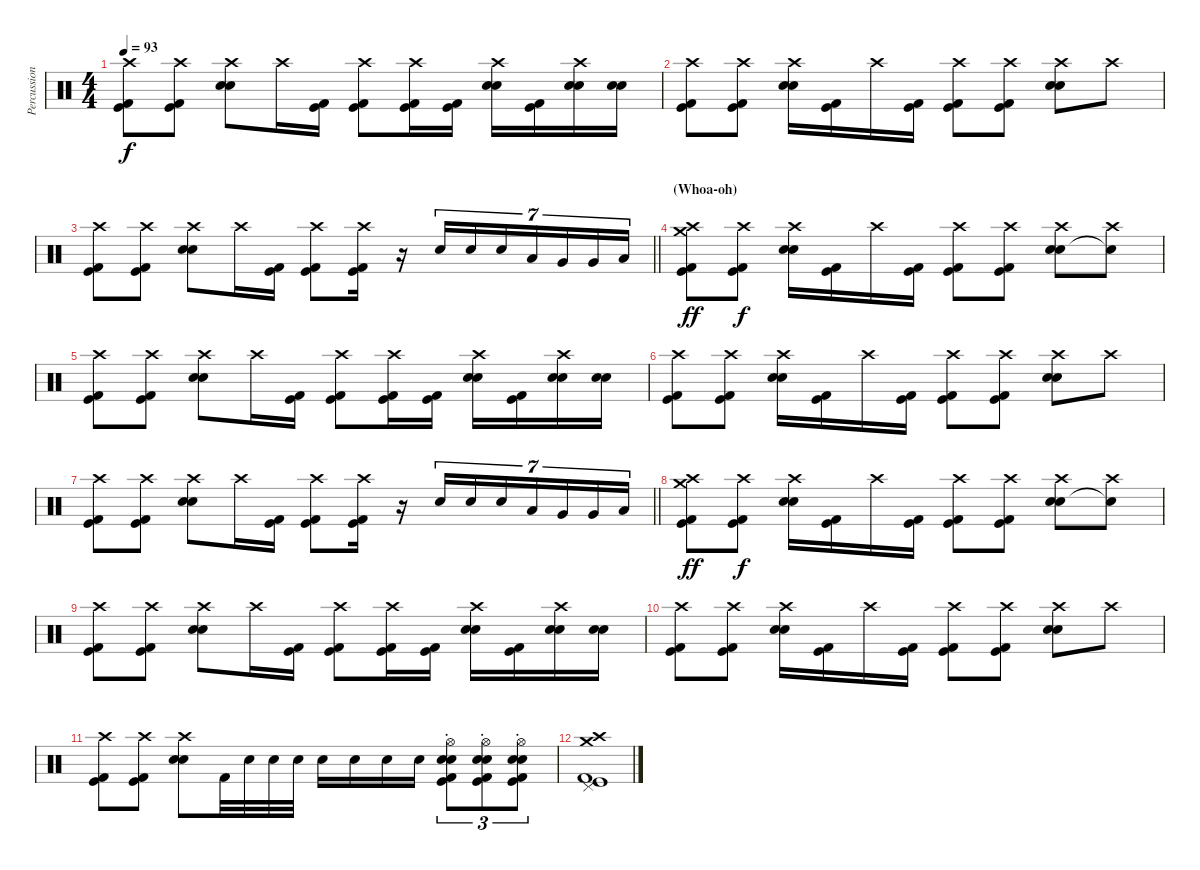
\track ("Percussion" "Percussion") {instrument percussion}
\staff {score}
\articulation defaults
\ts (4 4)
\tempo 93
\clef neutral
\ks c
("Kick (hit) 2" "Kick (hit)" "Crash high (hit)").8{dy f} ("Kick (hit) 2" "Kick (hit)" "Crash high (hit)").8 ("Electric Snare (hit)" "Snare (hit) 2" "Crash high (hit)").8 "Crash high (hit)".16 ("Kick (hit) 2" "Kick (hit)").16 ("Kick (hit) 2" "Kick (hit)" "Crash high (hit)").8 ("Kick (hit) 2" "Kick (hit)" "Crash high (hit)").16 ("Kick (hit) 2" "Kick (hit)").16 ("Electric Snare (hit)" "Snare (hit) 2" "Crash high (hit)").16 ("Kick (hit) 2" "Kick (hit)").16 ("Electric Snare (hit)" "Snare (hit) 2" "Crash high (hit)").16 ("Electric Snare (hit)" "Snare (hit) 2").16 |
("Kick (hit) 2" "Kick (hit)" "Crash high (hit)").8 ("Kick (hit) 2" "Kick (hit)" "Crash high (hit)").8 ("Electric Snare (hit)" "Snare (hit) 2" "Crash high (hit)").16 ("Kick (hit) 2" "Kick (hit)").16 "Crash high (hit)".16 ("Kick (hit) 2" "Kick (hit)").16 ("Kick (hit) 2" "Kick (hit)" "Crash high (hit)").8 ("Kick (hit) 2" "Kick (hit)" "Crash high (hit)").8 ("Electric Snare (hit)" "Snare (hit) 2" "Crash high (hit)").8 "Crash high (hit)".8 |
\barLineRight lightlight
("Kick (hit) 2" "Kick (hit)" "Crash high (hit)").8 ("Kick (hit) 2" "Kick (hit)" "Crash high (hit)").8 ("Electric Snare (hit)" "Snare (hit) 2" "Crash high (hit)").8 "Crash high (hit)".16 ("Kick (hit) 2" "Kick (hit)").16 ("Kick (hit) 2" "Kick (hit)" "Crash high (hit)").8 ("Kick (hit) 2" "Kick (hit)" "Crash high (hit)").16 r.16 "Snare (hit) 2".16{tu (7 4)} "Snare (hit) 2".16{tu (7 4)} "Snare (hit) 2".16{tu (7 4)} "Low Tom (hit)".16{tu (7 4)} "Very Low Tom (hit)".16{tu (7 4)} "Very Low Tom (hit)".16{tu (7 4)} "Low Floor Tom (hit)".16{tu (7 4)} |
\section ("" "(Whoa-oh)")
("Kick (hit) 2" "Kick (hit)" "Crash high (hit)" "Crash medium (hit)").8{dy ff} ("Kick (hit) 2" "Kick (hit)" "Crash high (hit)").8{dy f} ("Electric Snare (hit)" "Snare (hit) 2" "Crash high (hit)").16 ("Kick (hit) 2" "Kick (hit)").16 "Crash high (hit)".16 ("Kick (hit) 2" "Kick (hit)").16 ("Kick (hit) 2" "Kick (hit)" "Crash high (hit)").8 ("Kick (hit) 2" "Kick (hit)" "Crash high (hit)").8 ("Electric Snare (hit)" "Snare (hit) 2" "Crash high (hit)").8 ("Crash high (hit)" "Snare (hit)"{t}).8 |
("Kick (hit) 2" "Kick (hit)" "Crash high (hit)").8 ("Kick (hit) 2" "Kick (hit)" "Crash high (hit)").8 ("Electric Snare (hit)" "Snare (hit) 2" "Crash high (hit)").8 "Crash high (hit)".16 ("Kick (hit) 2" "Kick (hit)").16 ("Kick (hit) 2" "Kick (hit)" "Crash high (hit)").8 ("Kick (hit) 2" "Kick (hit)" "Crash high (hit)").16 ("Kick (hit) 2" "Kick (hit)").16 ("Electric Snare (hit)" "Snare (hit) 2" "Crash high (hit)").16 ("Kick (hit) 2" "Kick (hit)").16 ("Electric Snare (hit)" "Snare (hit) 2" "Crash high (hit)").16 ("Electric Snare (hit)" "Snare (hit) 2").16 |
("Kick (hit) 2" "Kick (hit)" "Crash high (hit)").8 ("Kick (hit) 2" "Kick (hit)" "Crash high (hit)").8 ("Electric Snare (hit)" "Snare (hit) 2" "Crash high (hit)").16 ("Kick (hit) 2" "Kick (hit)").16 "Crash high (hit)".16 ("Kick (hit) 2" "Kick (hit)").16 ("Kick (hit) 2" "Kick (hit)" "Crash high (hit)").8 ("Kick (hit) 2" "Kick (hit)" "Crash high (hit)").8 ("Electric Snare (hit)" "Snare (hit) 2" "Crash high (hit)").8 "Crash high (hit)".8 |
\barLineRight lightlight
("Kick (hit) 2" "Kick (hit)" "Crash high (hit)").8 ("Kick (hit) 2" "Kick (hit)" "Crash high (hit)").8 ("Electric Snare (hit)" "Snare (hit) 2" "Crash high (hit)").8 "Crash high (hit)".16 ("Kick (hit) 2" "Kick (hit)").16 ("Kick (hit) 2" "Kick (hit)" "Crash high (hit)").8 ("Kick (hit) 2" "Kick (hit)" "Crash high (hit)").16 r.16 "Snare (hit) 2".16{tu (7 4)} "Snare (hit) 2".16{tu (7 4)} "Snare (hit) 2".16{tu (7 4)} "Low Tom (hit)".16{tu (7 4)} "Very Low Tom (hit)".16{tu (7 4)} "Very Low Tom (hit)".16{tu (7 4)} "Low Floor Tom (hit)".16{tu (7 4)} |
("Kick (hit) 2" "Kick (hit)" "Crash high (hit)" "Crash medium (hit)").8{dy ff} ("Kick (hit) 2" "Kick (hit)" "Crash high (hit)").8{dy f} ("Electric Snare (hit)" "Snare (hit) 2" "Crash high (hit)").16 ("Kick (hit) 2" "Kick (hit)").16 "Crash high (hit)".16 ("Kick (hit) 2" "Kick (hit)").16 ("Kick (hit) 2" "Kick (hit)" "Crash high (hit)").8 ("Kick (hit) 2" "Kick (hit)" "Crash high (hit)").8 ("Electric Snare (hit)" "Snare (hit) 2" "Crash high (hit)").8 ("Crash high (hit)" "Snare (hit)"{t}).8 |
("Kick (hit) 2" "Kick (hit)" "Crash high (hit)").8 ("Kick (hit) 2" "Kick (hit)" "Crash high (hit)").8 ("Electric Snare (hit)" "Snare (hit) 2" "Crash high (hit)").8 "Crash high (hit)".16 ("Kick (hit) 2" "Kick (hit)").16 ("Kick (hit) 2" "Kick (hit)" "Crash high (hit)").8 ("Kick (hit) 2" "Kick (hit)" "Crash high (hit)").16 ("Kick (hit) 2" "Kick (hit)").16 ("Electric Snare (hit)" "Snare (hit) 2" "Crash high (hit)").16 ("Kick (hit) 2" "Kick (hit)").16 ("Electric Snare (hit)" "Snare (hit) 2" "Crash high (hit)").16 ("Electric Snare (hit)" "Snare (hit) 2").16 |
("Kick (hit) 2" "Kick (hit)" "Crash high (hit)").8 ("Kick (hit) 2" "Kick (hit)" "Crash high (hit)").8 ("Electric Snare (hit)" "Snare (hit) 2" "Crash high (hit)").16 ("Kick (hit) 2" "Kick (hit)").16 "Crash high (hit)".16 ("Kick (hit) 2" "Kick (hit)").16 ("Kick (hit) 2" "Kick (hit)" "Crash high (hit)").8 ("Kick (hit) 2" "Kick (hit)" "Crash high (hit)").8 ("Electric Snare (hit)" "Snare (hit) 2" "Crash high (hit)").8 "Crash high (hit)".8 |
("Kick (hit) 2" "Kick (hit)" "Crash high (hit)").8 ("Kick (hit) 2" "Kick (hit)" "Crash high (hit)").8 ("Electric Snare (hit)" "Snare (hit) 2" "Crash high (hit)").8 "Kick (hit) 2".32 "Snare (hit) 2".32 "Snare (hit) 2".32 "Snare (hit) 2".32 "Snare (hit) 2".16 "Snare (hit) 2".16 "Snare (hit) 2".16 "Snare (hit) 2".16 ("Kick (hit) 2" "Kick (hit)" "Snare (hit) 2" "Hi-Hat (open)"{st} "Electric Snare (hit)").8{tu (3 2)} ("Kick (hit) 2" "Kick (hit)" "Snare (hit) 2" "Hi-Hat (open)"{st} "Electric Snare (hit)").8{tu (3 2)} ("Kick (hit) 2" "Kick (hit)" "Snare (hit) 2" "Hi-Hat (open)"{st} "Electric Snare (hit)").8{tu (3 2)} |
("Kick (hit) 2" "Kick (hit)" "Pedal Hi-Hat (hit)" "Crash medium (hit)" "Crash high (hit)").1
